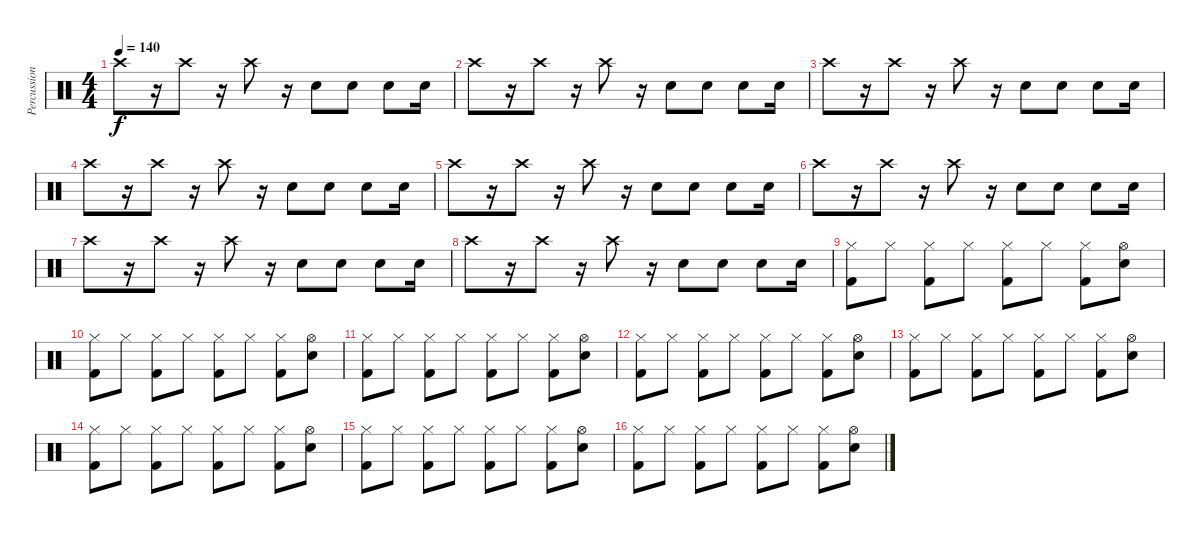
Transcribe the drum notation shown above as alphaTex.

\track ("Percussion" "Percussion") {instrument percussion}
\staff {score}
\articulation defaults
\ts (4 4)
\tempo 140
\clef neutral
\ks c "Crash high (hit)".8{dy f}
r.16 "Crash high (hit)".8 r.16 "Crash high (hit)".8 r.16 "Electric Snare (hit)".8 "Electric Snare (hit)".8 "Electric Snare (hit)".8 "Electric Snare (hit)".16 |
"Crash high (hit)".8 r.16 "Crash high (hit)".8 r.16 "Crash high (hit)".8 r.16 "Electric Snare (hit)".8 "Electric Snare (hit)".8 "Electric Snare (hit)".8 "Electric Snare (hit)".16 |
"Crash high (hit)".8 r.16 "Crash high (hit)".8 r.16 "Crash high (hit)".8 r.16 "Electric Snare (hit)".8 "Electric Snare (hit)".8 "Electric Snare (hit)".8 "Electric Snare (hit)".16 |
"Crash high (hit)".8 r.16 "Crash high (hit)".8 r.16 "Crash high (hit)".8 r.16 "Electric Snare (hit)".8 "Electric Snare (hit)".8 "Electric Snare (hit)".8 "Electric Snare (hit)".16 |
"Crash high (hit)".8 r.16 "Crash high (hit)".8 r.16 "Crash high (hit)".8 r.16 "Electric Snare (hit)".8 "Electric Snare (hit)".8 "Electric Snare (hit)".8 "Electric Snare (hit)".16 |
"Crash high (hit)".8 r.16 "Crash high (hit)".8 r.16 "Crash high (hit)".8 r.16 "Electric Snare (hit)".8 "Electric Snare (hit)".8 "Electric Snare (hit)".8 "Electric Snare (hit)".16 |
"Crash high (hit)".8 r.16 "Crash high (hit)".8 r.16 "Crash high (hit)".8 r.16 "Electric Snare (hit)".8 "Electric Snare (hit)".8 "Electric Snare (hit)".8 "Electric Snare (hit)".16 |
"Crash high (hit)".8 r.16 "Crash high (hit)".8 r.16 "Crash high (hit)".8 r.16 "Electric Snare (hit)".8 "Electric Snare (hit)".8 "Electric Snare (hit)".8 "Electric Snare (hit)".16 |
("Hi-Hat (closed)" "Kick (hit) 2").8 "Hi-Hat (closed)".8 ("Hi-Hat (closed)" "Kick (hit) 2").8 "Hi-Hat (closed)".8 ("Hi-Hat (closed)" "Kick (hit) 2").8 "Hi-Hat (closed)".8 ("Hi-Hat (closed)" "Kick (hit) 2").8 ("Hi-Hat (open)" "Electric Snare (hit)").8 |
("Hi-Hat (closed)" "Kick (hit) 2").8 "Hi-Hat (closed)".8 ("Hi-Hat (closed)" "Kick (hit) 2").8 "Hi-Hat (closed)".8 ("Hi-Hat (closed)" "Kick (hit) 2").8 "Hi-Hat (closed)".8 ("Hi-Hat (closed)" "Kick (hit) 2").8 ("Hi-Hat (open)" "Electric Snare (hit)").8 |
("Hi-Hat (closed)" "Kick (hit) 2").8 "Hi-Hat (closed)".8 ("Hi-Hat (closed)" "Kick (hit) 2").8 "Hi-Hat (closed)".8 ("Hi-Hat (closed)" "Kick (hit) 2").8 "Hi-Hat (closed)".8 ("Hi-Hat (closed)" "Kick (hit) 2").8 ("Hi-Hat (open)" "Electric Snare (hit)").8 |
("Hi-Hat (closed)" "Kick (hit) 2").8 "Hi-Hat (closed)".8 ("Hi-Hat (closed)" "Kick (hit) 2").8 "Hi-Hat (closed)".8 ("Hi-Hat (closed)" "Kick (hit) 2").8 "Hi-Hat (closed)".8 ("Hi-Hat (closed)" "Kick (hit) 2").8 ("Hi-Hat (open)" "Electric Snare (hit)").8 |
("Hi-Hat (closed)" "Kick (hit) 2").8 "Hi-Hat (closed)".8 ("Hi-Hat (closed)" "Kick (hit) 2").8 "Hi-Hat (closed)".8 ("Hi-Hat (closed)" "Kick (hit) 2").8 "Hi-Hat (closed)".8 ("Hi-Hat (closed)" "Kick (hit) 2").8 ("Hi-Hat (open)" "Electric Snare (hit)").8 |
("Hi-Hat (closed)" "Kick (hit) 2").8 "Hi-Hat (closed)".8 ("Hi-Hat (closed)" "Kick (hit) 2").8 "Hi-Hat (closed)".8 ("Hi-Hat (closed)" "Kick (hit) 2").8 "Hi-Hat (closed)".8 ("Hi-Hat (closed)" "Kick (hit) 2").8 ("Hi-Hat (open)" "Electric Snare (hit)").8 |
("Hi-Hat (closed)" "Kick (hit) 2").8 "Hi-Hat (closed)".8 ("Hi-Hat (closed)" "Kick (hit) 2").8 "Hi-Hat (closed)".8 ("Hi-Hat (closed)" "Kick (hit) 2").8 "Hi-Hat (closed)".8 ("Hi-Hat (closed)" "Kick (hit) 2").8 ("Hi-Hat (open)" "Electric Snare (hit)").8 |
("Hi-Hat (closed)" "Kick (hit) 2").8 "Hi-Hat (closed)".8 ("Hi-Hat (closed)" "Kick (hit) 2").8 "Hi-Hat (closed)".8 ("Hi-Hat (closed)" "Kick (hit) 2").8 "Hi-Hat (closed)".8 ("Hi-Hat (closed)" "Kick (hit) 2").8 ("Hi-Hat (open)" "Electric Snare (hit)").8
